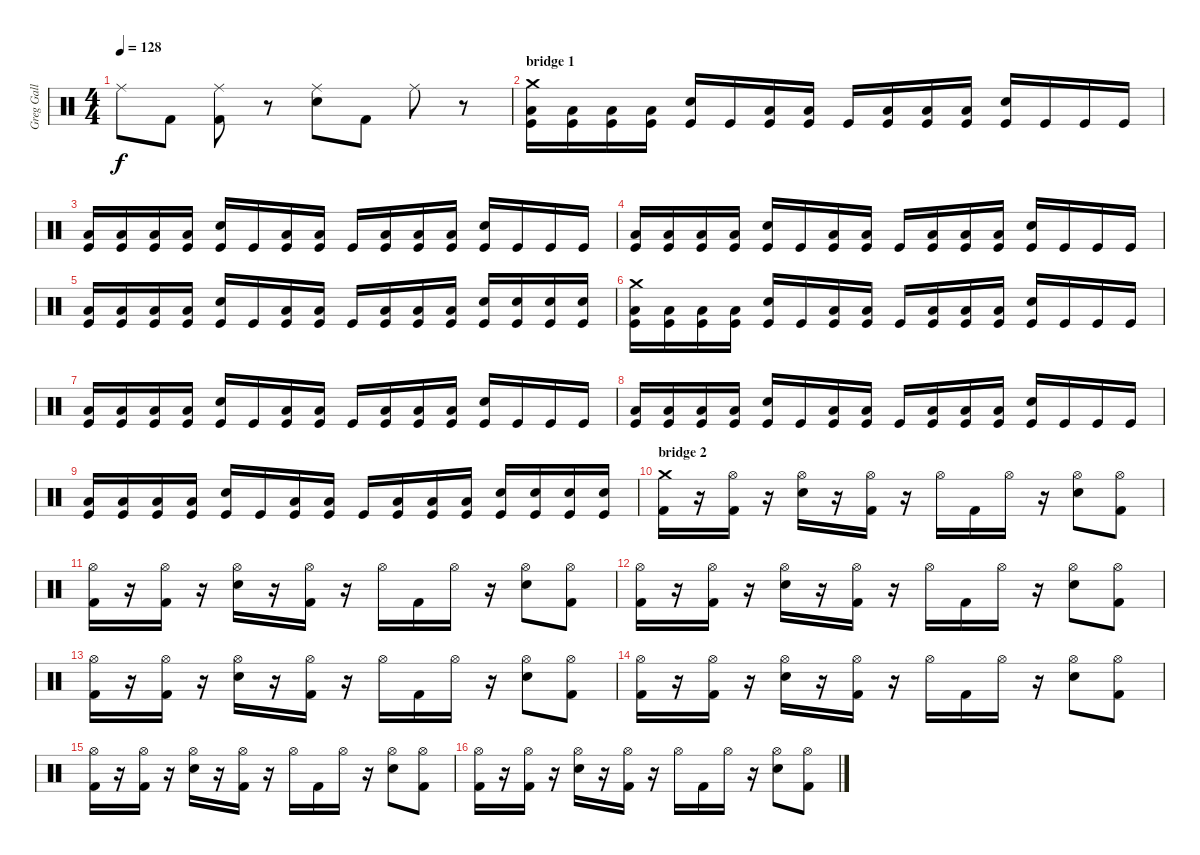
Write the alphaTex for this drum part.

\track ("Greg Gall" "Greg Gall") {instrument percussion}
\staff {score}
\articulation defaults
\ts (4 4)
\tempo 128
\clef neutral
\ks c "Ride (middle)".8{dy f} "Kick (hit) 2".8
("Ride (middle)" "Kick (hit) 2").8 r.8 ("Ride (middle)" "Electric Snare (hit)").8 "Kick (hit) 2".8 "Ride (middle)".8 r.8 |
\section ("" "bridge 1")
("Crash medium (hit)" "Low Tom (hit)" "Kick (hit)").16 ("Low Tom (hit)" "Kick (hit)").16 ("Low Tom (hit)" "Kick (hit)").16 ("Low Tom (hit)" "Kick (hit)").16 ("Electric Snare (hit)" "Kick (hit)").16 "Kick (hit)".16 ("Low Tom (hit)" "Kick (hit)").16 ("Low Tom (hit)" "Kick (hit)").16 "Kick (hit)".16 ("Low Tom (hit)" "Kick (hit)").16 ("Low Tom (hit)" "Kick (hit)").16 ("Low Tom (hit)" "Kick (hit)").16 ("Electric Snare (hit)" "Kick (hit)").16 "Kick (hit)".16 "Kick (hit)".16 "Kick (hit)".16 |
("Low Tom (hit)" "Kick (hit)").16 ("Low Tom (hit)" "Kick (hit)").16 ("Low Tom (hit)" "Kick (hit)").16 ("Low Tom (hit)" "Kick (hit)").16 ("Electric Snare (hit)" "Kick (hit)").16 "Kick (hit)".16 ("Low Tom (hit)" "Kick (hit)").16 ("Low Tom (hit)" "Kick (hit)").16 "Kick (hit)".16 ("Low Tom (hit)" "Kick (hit)").16 ("Low Tom (hit)" "Kick (hit)").16 ("Low Tom (hit)" "Kick (hit)").16 ("Electric Snare (hit)" "Kick (hit)").16 "Kick (hit)".16 "Kick (hit)".16 "Kick (hit)".16 |
("Low Tom (hit)" "Kick (hit)").16 ("Low Tom (hit)" "Kick (hit)").16 ("Low Tom (hit)" "Kick (hit)").16 ("Low Tom (hit)" "Kick (hit)").16 ("Electric Snare (hit)" "Kick (hit)").16 "Kick (hit)".16 ("Low Tom (hit)" "Kick (hit)").16 ("Low Tom (hit)" "Kick (hit)").16 "Kick (hit)".16 ("Low Tom (hit)" "Kick (hit)").16 ("Low Tom (hit)" "Kick (hit)").16 ("Low Tom (hit)" "Kick (hit)").16 ("Electric Snare (hit)" "Kick (hit)").16 "Kick (hit)".16 "Kick (hit)".16 "Kick (hit)".16 |
("Low Tom (hit)" "Kick (hit)").16 ("Low Tom (hit)" "Kick (hit)").16 ("Low Tom (hit)" "Kick (hit)").16 ("Low Tom (hit)" "Kick (hit)").16 ("Electric Snare (hit)" "Kick (hit)").16 "Kick (hit)".16 ("Low Tom (hit)" "Kick (hit)").16 ("Low Tom (hit)" "Kick (hit)").16 "Kick (hit)".16 ("Low Tom (hit)" "Kick (hit)").16 ("Low Tom (hit)" "Kick (hit)").16 ("Low Tom (hit)" "Kick (hit)").16 ("Electric Snare (hit)" "Kick (hit)").16 ("Electric Snare (hit)" "Kick (hit)").16 ("Electric Snare (hit)" "Kick (hit)").16 ("Electric Snare (hit)" "Kick (hit)").16 |
("Crash medium (hit)" "Low Tom (hit)" "Kick (hit)").16 ("Low Tom (hit)" "Kick (hit)").16 ("Low Tom (hit)" "Kick (hit)").16 ("Low Tom (hit)" "Kick (hit)").16 ("Electric Snare (hit)" "Kick (hit)").16 "Kick (hit)".16 ("Low Tom (hit)" "Kick (hit)").16 ("Low Tom (hit)" "Kick (hit)").16 "Kick (hit)".16 ("Low Tom (hit)" "Kick (hit)").16 ("Low Tom (hit)" "Kick (hit)").16 ("Low Tom (hit)" "Kick (hit)").16 ("Electric Snare (hit)" "Kick (hit)").16 "Kick (hit)".16 "Kick (hit)".16 "Kick (hit)".16 |
("Low Tom (hit)" "Kick (hit)").16 ("Low Tom (hit)" "Kick (hit)").16 ("Low Tom (hit)" "Kick (hit)").16 ("Low Tom (hit)" "Kick (hit)").16 ("Electric Snare (hit)" "Kick (hit)").16 "Kick (hit)".16 ("Low Tom (hit)" "Kick (hit)").16 ("Low Tom (hit)" "Kick (hit)").16 "Kick (hit)".16 ("Low Tom (hit)" "Kick (hit)").16 ("Low Tom (hit)" "Kick (hit)").16 ("Low Tom (hit)" "Kick (hit)").16 ("Electric Snare (hit)" "Kick (hit)").16 "Kick (hit)".16 "Kick (hit)".16 "Kick (hit)".16 |
("Low Tom (hit)" "Kick (hit)").16 ("Low Tom (hit)" "Kick (hit)").16 ("Low Tom (hit)" "Kick (hit)").16 ("Low Tom (hit)" "Kick (hit)").16 ("Electric Snare (hit)" "Kick (hit)").16 "Kick (hit)".16 ("Low Tom (hit)" "Kick (hit)").16 ("Low Tom (hit)" "Kick (hit)").16 "Kick (hit)".16 ("Low Tom (hit)" "Kick (hit)").16 ("Low Tom (hit)" "Kick (hit)").16 ("Low Tom (hit)" "Kick (hit)").16 ("Electric Snare (hit)" "Kick (hit)").16 "Kick (hit)".16 "Kick (hit)".16 "Kick (hit)".16 |
("Low Tom (hit)" "Kick (hit)").16 ("Low Tom (hit)" "Kick (hit)").16 ("Low Tom (hit)" "Kick (hit)").16 ("Low Tom (hit)" "Kick (hit)").16 ("Electric Snare (hit)" "Kick (hit)").16 "Kick (hit)".16 ("Low Tom (hit)" "Kick (hit)").16 ("Low Tom (hit)" "Kick (hit)").16 "Kick (hit)".16 ("Low Tom (hit)" "Kick (hit)").16 ("Low Tom (hit)" "Kick (hit)").16 ("Low Tom (hit)" "Kick (hit)").16 ("Electric Snare (hit)" "Kick (hit)").16 ("Electric Snare (hit)" "Kick (hit)").16 ("Electric Snare (hit)" "Kick (hit)").16 ("Electric Snare (hit)" "Kick (hit)").16 |
\section ("" "bridge 2")
("Crash medium (hit)" "Kick (hit) 2").16 r.16 ("Hi-Hat (open)" "Kick (hit) 2").16 r.16 ("Hi-Hat (open)" "Electric Snare (hit)").16 r.16 ("Hi-Hat (open)" "Kick (hit) 2").16 r.16 "Hi-Hat (open)".16 "Kick (hit) 2".16 "Hi-Hat (open)".16 r.16 ("Hi-Hat (open)" "Electric Snare (hit)").8 ("Hi-Hat (open)" "Kick (hit) 2").8 |
("Hi-Hat (open)" "Kick (hit) 2").16 r.16 ("Hi-Hat (open)" "Kick (hit) 2").16 r.16 ("Hi-Hat (open)" "Electric Snare (hit)").16 r.16 ("Hi-Hat (open)" "Kick (hit) 2").16 r.16 "Hi-Hat (open)".16 "Kick (hit) 2".16 "Hi-Hat (open)".16 r.16 ("Hi-Hat (open)" "Electric Snare (hit)").8 ("Hi-Hat (open)" "Kick (hit) 2").8 |
("Hi-Hat (open)" "Kick (hit) 2").16 r.16 ("Hi-Hat (open)" "Kick (hit) 2").16 r.16 ("Hi-Hat (open)" "Electric Snare (hit)").16 r.16 ("Hi-Hat (open)" "Kick (hit) 2").16 r.16 "Hi-Hat (open)".16 "Kick (hit) 2".16 "Hi-Hat (open)".16 r.16 ("Hi-Hat (open)" "Electric Snare (hit)").8 ("Hi-Hat (open)" "Kick (hit) 2").8 |
("Hi-Hat (open)" "Kick (hit) 2").16 r.16 ("Hi-Hat (open)" "Kick (hit) 2").16 r.16 ("Hi-Hat (open)" "Electric Snare (hit)").16 r.16 ("Hi-Hat (open)" "Kick (hit) 2").16 r.16 "Hi-Hat (open)".16 "Kick (hit) 2".16 "Hi-Hat (open)".16 r.16 ("Hi-Hat (open)" "Electric Snare (hit)").8 ("Hi-Hat (open)" "Kick (hit) 2").8 |
("Hi-Hat (open)" "Kick (hit) 2").16 r.16 ("Hi-Hat (open)" "Kick (hit) 2").16 r.16 ("Hi-Hat (open)" "Electric Snare (hit)").16 r.16 ("Hi-Hat (open)" "Kick (hit) 2").16 r.16 "Hi-Hat (open)".16 "Kick (hit) 2".16 "Hi-Hat (open)".16 r.16 ("Hi-Hat (open)" "Electric Snare (hit)").8 ("Hi-Hat (open)" "Kick (hit) 2").8 |
("Hi-Hat (open)" "Kick (hit) 2").16 r.16 ("Hi-Hat (open)" "Kick (hit) 2").16 r.16 ("Hi-Hat (open)" "Electric Snare (hit)").16 r.16 ("Hi-Hat (open)" "Kick (hit) 2").16 r.16 "Hi-Hat (open)".16 "Kick (hit) 2".16 "Hi-Hat (open)".16 r.16 ("Hi-Hat (open)" "Electric Snare (hit)").8 ("Hi-Hat (open)" "Kick (hit) 2").8 |
("Hi-Hat (open)" "Kick (hit) 2").16 r.16 ("Hi-Hat (open)" "Kick (hit) 2").16 r.16 ("Hi-Hat (open)" "Electric Snare (hit)").16 r.16 ("Hi-Hat (open)" "Kick (hit) 2").16 r.16 "Hi-Hat (open)".16 "Kick (hit) 2".16 "Hi-Hat (open)".16 r.16 ("Hi-Hat (open)" "Electric Snare (hit)").8 ("Hi-Hat (open)" "Kick (hit) 2").8
